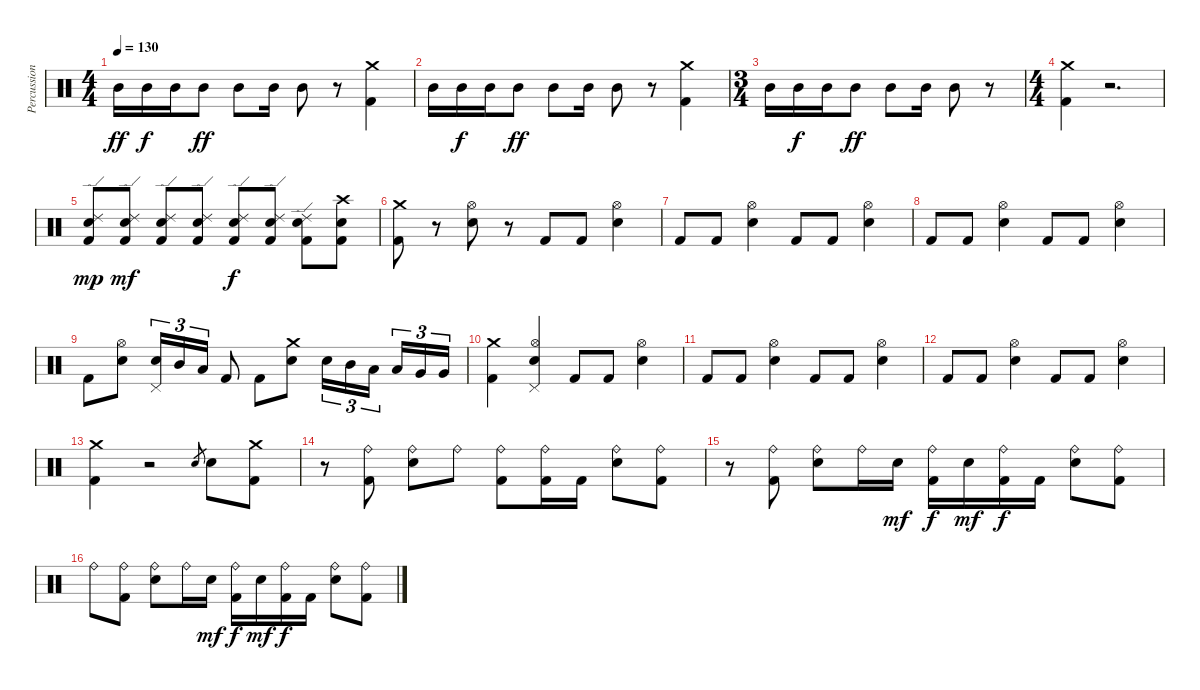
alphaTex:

\track ("Percussion" "Percussion") {instrument percussion}
\staff {score}
\articulation defaults
\ts (4 4)
\tempo 130
\clef neutral
\ks c "Mid Tom (hit)".16{dy ff} "Mid Tom (hit)".16{dy f} "Mid Tom (hit)".16 "Mid Tom (hit)".8{dy ff} "Mid Tom (hit)".8 "Mid Tom (hit)".16 "Mid Tom (hit)".8
r.8 ("Kick (hit) 2" "Crash medium (hit)").4 |
"Mid Tom (hit)".16 "Mid Tom (hit)".16{dy f} "Mid Tom (hit)".16 "Mid Tom (hit)".8{dy ff} "Mid Tom (hit)".8 "Mid Tom (hit)".16 "Mid Tom (hit)".8 r.8 ("Kick (hit) 2" "Crash medium (hit)").4 |
\ts (3 4)
"Mid Tom (hit)".16 "Mid Tom (hit)".16{dy f} "Mid Tom (hit)".16 "Mid Tom (hit)".8{dy ff} "Mid Tom (hit)".8 "Mid Tom (hit)".16 "Mid Tom (hit)".8 r.8 |
\ts (4 4)
("Kick (hit) 2" "Crash medium (hit)").4 r.2{d} |
("Kick (hit) 2" "Electric Snare (hit)" "Ride (edge) 2").8{dy mp} ("Kick (hit) 2" "Electric Snare (hit)" "Ride (edge) 2").8{dy mf} ("Kick (hit) 2" "Electric Snare (hit)" "Ride (edge) 2").8 ("Kick (hit) 2" "Electric Snare (hit)" "Ride (edge) 2").8 ("Kick (hit) 2" "Electric Snare (hit)" "Ride (edge) 2").8{dy f} ("Kick (hit) 2" "Electric Snare (hit)" "Ride (edge) 2").8 ("Kick (hit) 2" "Electric Snare (hit)" "Ride (edge) 2").8 ("Kick (hit) 2" "Electric Snare (hit)" "Crash high (hit)").8 |
("Kick (hit) 2" "Crash medium (hit)").8 r.8 ("Electric Snare (hit)" "Hi-Hat (open)").8 r.8 "Kick (hit) 2".8 "Kick (hit) 2".8 ("Electric Snare (hit)" "Hi-Hat (open)").4 |
"Kick (hit) 2".8 "Kick (hit) 2".8 ("Electric Snare (hit)" "Hi-Hat (open)").4 "Kick (hit) 2".8 "Kick (hit) 2".8 ("Electric Snare (hit)" "Hi-Hat (open)").4 |
"Kick (hit) 2".8 "Kick (hit) 2".8 ("Electric Snare (hit)" "Hi-Hat (open)").4 "Kick (hit) 2".8 "Kick (hit) 2".8 ("Electric Snare (hit)" "Hi-Hat (open)").4 |
"Kick (hit) 2".8 ("Electric Snare (hit)" "Hi-Hat (open)").8 ("Electric Snare (hit)" "Pedal Hi-Hat (hit)").16{tu (3 2)} "Mid Tom (hit)".16{tu (3 2)} "Low Tom (hit)".16{tu (3 2)} "Kick (hit) 2".8 "Kick (hit) 2".8 ("Electric Snare (hit)" "Crash medium (hit)").8 "Electric Snare (hit)".16{tu (3 2)} "Mid Tom (hit)".16{tu (3 2)} "Low Tom (hit)".16{tu (3 2)} "Low Tom (hit)".16{tu (3 2)} "Very Low Tom (hit)".16{tu (3 2)} "Very Low Tom (hit)".16{tu (3 2)} |
("Kick (hit) 2" "Crash medium (hit)").4 ("Electric Snare (hit)" "Pedal Hi-Hat (hit)" "Hi-Hat (open)").4 "Kick (hit) 2".8 "Kick (hit) 2".8 ("Electric Snare (hit)" "Hi-Hat (open)").4 |
"Kick (hit) 2".8 "Kick (hit) 2".8 ("Electric Snare (hit)" "Hi-Hat (open)").4 "Kick (hit) 2".8 "Kick (hit) 2".8 ("Electric Snare (hit)" "Hi-Hat (open)").4 |
"Kick (hit) 2".8 "Kick (hit) 2".8 ("Electric Snare (hit)" "Hi-Hat (open)").4 "Kick (hit) 2".8 "Kick (hit) 2".8 ("Electric Snare (hit)" "Hi-Hat (open)").4 |
("Kick (hit) 2" "Crash medium (hit)").4 r.2 "Electric Snare (hit)".8{gr} "Electric Snare (hit)".8 ("Kick (hit) 2" "Crash medium (hit)").8 |
r.8 ("Kick (hit) 2" "Ride (bell)").8 ("Electric Snare (hit)" "Ride (bell)").8 "Ride (bell)".8 ("Kick (hit) 2" "Ride (bell)").8 ("Kick (hit) 2" "Ride (bell)").16 "Kick (hit) 2".16 ("Electric Snare (hit)" "Ride (bell)").8 ("Kick (hit) 2" "Ride (bell)").8 |
r.8 ("Kick (hit) 2" "Ride (bell)").8 ("Electric Snare (hit)" "Ride (bell)").8 "Ride (bell)".16 "Electric Snare (hit)".16{dy mf} ("Kick (hit) 2" "Ride (bell)").16{dy f} "Electric Snare (hit)".16{dy mf} ("Kick (hit) 2" "Ride (bell)").16{dy f} "Kick (hit) 2".16 ("Electric Snare (hit)" "Ride (bell)").8 ("Kick (hit) 2" "Ride (bell)").8 |
"Ride (bell)".8 ("Kick (hit) 2" "Ride (bell)").8 ("Electric Snare (hit)" "Ride (bell)").8 "Ride (bell)".16 "Electric Snare (hit)".16{dy mf} ("Kick (hit) 2" "Ride (bell)").16{dy f} "Electric Snare (hit)".16{dy mf} ("Kick (hit) 2" "Ride (bell)").16{dy f} "Kick (hit) 2".16 ("Electric Snare (hit)" "Ride (bell)").8 ("Kick (hit) 2" "Ride (bell)").8
